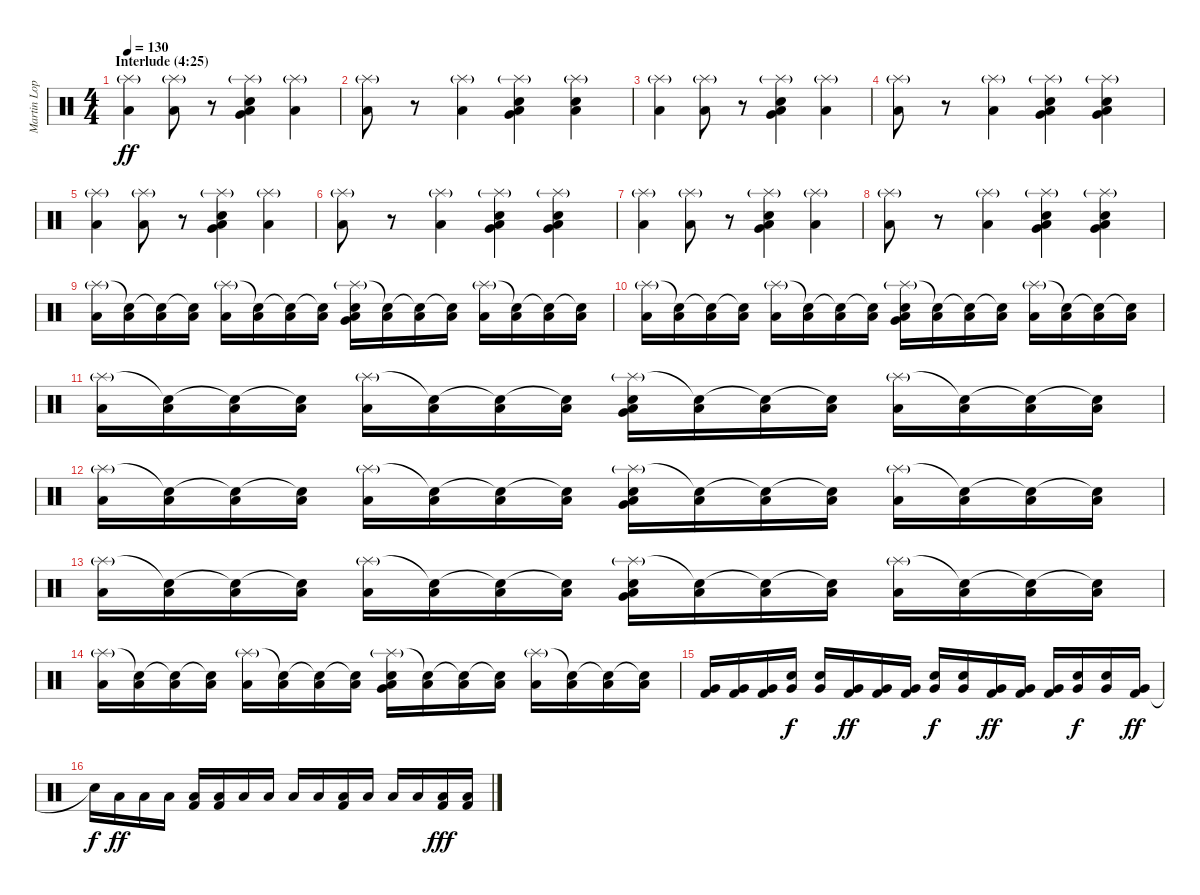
\track ("Martin Lopez" "Martin Lop") {instrument percussion}
\staff {score}
\articulation defaults
\ts (4 4)
\section ("" "Interlude (4:25)")
\tempo 130
\clef neutral
\ks c
("Splash (hit)"{g} "Low Floor Tom (hit)").4{dy ff} ("Splash (hit)"{g} "Low Floor Tom (hit)").8 r.8 ("Splash (hit)"{g} "Very Low Tom (hit)" "Snare (hit) 2" "Low Floor Tom (hit)").4 ("Splash (hit)"{g} "Low Floor Tom (hit)").4 |
("Splash (hit)"{g} "Low Floor Tom (hit)").8 r.8 ("Splash (hit)"{g} "Low Floor Tom (hit)").4 ("Splash (hit)"{g} "Very Low Tom (hit)" "Snare (hit) 2" "Low Floor Tom (hit)").4 ("Splash (hit)"{g} "Snare (hit) 2" "Low Floor Tom (hit)").4 |
("Splash (hit)"{g} "Low Floor Tom (hit)").4 ("Splash (hit)"{g} "Low Floor Tom (hit)").8 r.8 ("Splash (hit)"{g} "Very Low Tom (hit)" "Snare (hit) 2" "Low Floor Tom (hit)").4 ("Splash (hit)"{g} "Low Floor Tom (hit)").4 |
("Splash (hit)"{g} "Low Floor Tom (hit)").8 r.8 ("Splash (hit)"{g} "Low Floor Tom (hit)").4 ("Splash (hit)"{g} "Very Low Tom (hit)" "Snare (hit) 2" "Low Floor Tom (hit)").4 ("Splash (hit)"{g} "Very Low Tom (hit)" "Snare (hit) 2" "Low Floor Tom (hit)").4 |
("Splash (hit)"{g} "Low Floor Tom (hit)").4 ("Splash (hit)"{g} "Low Floor Tom (hit)").8 r.8 ("Splash (hit)"{g} "Very Low Tom (hit)" "Snare (hit) 2" "Low Floor Tom (hit)").4 ("Splash (hit)"{g} "Low Floor Tom (hit)").4 |
("Splash (hit)"{g} "Low Floor Tom (hit)").8 r.8 ("Splash (hit)"{g} "Low Floor Tom (hit)").4 ("Splash (hit)"{g} "Very Low Tom (hit)" "Snare (hit) 2" "Low Floor Tom (hit)").4 ("Splash (hit)"{g} "Very Low Tom (hit)" "Snare (hit) 2" "Low Floor Tom (hit)").4 |
("Splash (hit)"{g} "Low Floor Tom (hit)").4 ("Splash (hit)"{g} "Low Floor Tom (hit)").8 r.8 ("Splash (hit)"{g} "Very Low Tom (hit)" "Snare (hit) 2" "Low Floor Tom (hit)").4 ("Splash (hit)"{g} "Low Floor Tom (hit)").4 |
("Splash (hit)"{g} "Low Floor Tom (hit)").8 r.8 ("Splash (hit)"{g} "Low Floor Tom (hit)").4 ("Splash (hit)"{g} "Very Low Tom (hit)" "Snare (hit) 2" "Low Floor Tom (hit)").4 ("Splash (hit)"{g} "Very Low Tom (hit)" "Snare (hit) 2" "Low Floor Tom (hit)").4 |
("Splash (hit)"{g} "Low Floor Tom (hit)").16 ("Snare (hit)"{t} "Low Floor Tom (hit)").16 ("Snare (hit)"{t} "Low Floor Tom (hit)").16 ("Snare (hit)"{t} "Low Floor Tom (hit)").16 ("Splash (hit)"{g} "Low Floor Tom (hit)").16 ("Snare (hit)"{t} "Low Floor Tom (hit)").16 ("Snare (hit)"{t} "Low Floor Tom (hit)").16 ("Snare (hit)"{t} "Low Floor Tom (hit)").16 ("Splash (hit)"{g} "Very Low Tom (hit)" "Snare (hit) 2" "Low Floor Tom (hit)").16 ("Snare (hit)"{t} "Low Floor Tom (hit)").16 ("Snare (hit)"{t} "Low Floor Tom (hit)").16 ("Snare (hit)"{t} "Low Floor Tom (hit)").16 ("Splash (hit)"{g} "Low Floor Tom (hit)").16 ("Snare (hit)"{t} "Low Floor Tom (hit)").16 ("Snare (hit)"{t} "Low Floor Tom (hit)").16 ("Snare (hit)"{t} "Low Floor Tom (hit)").16 |
("Splash (hit)"{g} "Low Floor Tom (hit)").16 ("Snare (hit)"{t} "Low Floor Tom (hit)").16 ("Snare (hit)"{t} "Low Floor Tom (hit)").16 ("Snare (hit)"{t} "Low Floor Tom (hit)").16 ("Splash (hit)"{g} "Low Floor Tom (hit)").16 ("Snare (hit)"{t} "Low Floor Tom (hit)").16 ("Snare (hit)"{t} "Low Floor Tom (hit)").16 ("Snare (hit)"{t} "Low Floor Tom (hit)").16 ("Splash (hit)"{g} "Very Low Tom (hit)" "Snare (hit) 2" "Low Floor Tom (hit)").16 ("Snare (hit)"{t} "Low Floor Tom (hit)").16 ("Snare (hit)"{t} "Low Floor Tom (hit)").16 ("Snare (hit)"{t} "Low Floor Tom (hit)").16 ("Splash (hit)"{g} "Low Floor Tom (hit)").16 ("Snare (hit)"{t} "Low Floor Tom (hit)").16 ("Snare (hit)"{t} "Low Floor Tom (hit)").16 ("Snare (hit)"{t} "Low Floor Tom (hit)").16 |
("Splash (hit)"{g} "Low Floor Tom (hit)").16 ("Snare (hit)"{t} "Low Floor Tom (hit)").16 ("Snare (hit)"{t} "Low Floor Tom (hit)").16 ("Snare (hit)"{t} "Low Floor Tom (hit)").16 ("Splash (hit)"{g} "Low Floor Tom (hit)").16 ("Snare (hit)"{t} "Low Floor Tom (hit)").16 ("Snare (hit)"{t} "Low Floor Tom (hit)").16 ("Snare (hit)"{t} "Low Floor Tom (hit)").16 ("Splash (hit)"{g} "Very Low Tom (hit)" "Snare (hit) 2" "Low Floor Tom (hit)").16 ("Snare (hit)"{t} "Low Floor Tom (hit)").16 ("Snare (hit)"{t} "Low Floor Tom (hit)").16 ("Snare (hit)"{t} "Low Floor Tom (hit)").16 ("Splash (hit)"{g} "Low Floor Tom (hit)").16 ("Snare (hit)"{t} "Low Floor Tom (hit)").16 ("Snare (hit)"{t} "Low Floor Tom (hit)").16 ("Snare (hit)"{t} "Low Floor Tom (hit)").16 |
("Splash (hit)"{g} "Low Floor Tom (hit)").16 ("Snare (hit)"{t} "Low Floor Tom (hit)").16 ("Snare (hit)"{t} "Low Floor Tom (hit)").16 ("Snare (hit)"{t} "Low Floor Tom (hit)").16 ("Splash (hit)"{g} "Low Floor Tom (hit)").16 ("Snare (hit)"{t} "Low Floor Tom (hit)").16 ("Snare (hit)"{t} "Low Floor Tom (hit)").16 ("Snare (hit)"{t} "Low Floor Tom (hit)").16 ("Splash (hit)"{g} "Very Low Tom (hit)" "Snare (hit) 2" "Low Floor Tom (hit)").16 ("Snare (hit)"{t} "Low Floor Tom (hit)").16 ("Snare (hit)"{t} "Low Floor Tom (hit)").16 ("Snare (hit)"{t} "Low Floor Tom (hit)").16 ("Splash (hit)"{g} "Low Floor Tom (hit)").16 ("Snare (hit)"{t} "Low Floor Tom (hit)").16 ("Snare (hit)"{t} "Low Floor Tom (hit)").16 ("Snare (hit)"{t} "Low Floor Tom (hit)").16 |
("Splash (hit)"{g} "Low Floor Tom (hit)").16 ("Snare (hit)"{t} "Low Floor Tom (hit)").16 ("Snare (hit)"{t} "Low Floor Tom (hit)").16 ("Snare (hit)"{t} "Low Floor Tom (hit)").16 ("Splash (hit)"{g} "Low Floor Tom (hit)").16 ("Snare (hit)"{t} "Low Floor Tom (hit)").16 ("Snare (hit)"{t} "Low Floor Tom (hit)").16 ("Snare (hit)"{t} "Low Floor Tom (hit)").16 ("Splash (hit)"{g} "Very Low Tom (hit)" "Snare (hit) 2" "Low Floor Tom (hit)").16 ("Snare (hit)"{t} "Low Floor Tom (hit)").16 ("Snare (hit)"{t} "Low Floor Tom (hit)").16 ("Snare (hit)"{t} "Low Floor Tom (hit)").16 ("Splash (hit)"{g} "Low Floor Tom (hit)").16 ("Snare (hit)"{t} "Low Floor Tom (hit)").16 ("Snare (hit)"{t} "Low Floor Tom (hit)").16 ("Snare (hit)"{t} "Low Floor Tom (hit)").16 |
("Splash (hit)"{g} "Low Floor Tom (hit)").16 ("Snare (hit)"{t} "Low Floor Tom (hit)").16 ("Snare (hit)"{t} "Low Floor Tom (hit)").16 ("Snare (hit)"{t} "Low Floor Tom (hit)").16 ("Splash (hit)"{g} "Low Floor Tom (hit)").16 ("Snare (hit)"{t} "Low Floor Tom (hit)").16 ("Snare (hit)"{t} "Low Floor Tom (hit)").16 ("Snare (hit)"{t} "Low Floor Tom (hit)").16 ("Splash (hit)"{g} "Very Low Tom (hit)" "Snare (hit) 2" "Low Floor Tom (hit)").16 ("Snare (hit)"{t} "Low Floor Tom (hit)").16 ("Snare (hit)"{t} "Low Floor Tom (hit)").16 ("Snare (hit)"{t} "Low Floor Tom (hit)").16 ("Splash (hit)"{g} "Low Floor Tom (hit)").16 ("Snare (hit)"{t} "Low Floor Tom (hit)").16 ("Snare (hit)"{t} "Low Floor Tom (hit)").16 ("Snare (hit)"{t} "Low Floor Tom (hit)").16 |
("Kick (hit) 2" "Very Low Tom (hit)").16 ("Kick (hit) 2" "Very Low Tom (hit)").16 ("Kick (hit) 2" "Very Low Tom (hit)").16 ("Very Low Tom (hit)" "Snare (hit) 2").16{dy f} ("Very Low Tom (hit)" "Snare (hit) 2").16 ("Kick (hit) 2" "Very Low Tom (hit)").16{dy ff} ("Kick (hit) 2" "Very Low Tom (hit)").16 ("Kick (hit) 2" "Very Low Tom (hit)").16 ("Very Low Tom (hit)" "Snare (hit) 2").16{dy f} ("Very Low Tom (hit)" "Snare (hit) 2").16 ("Kick (hit) 2" "Very Low Tom (hit)").16{dy ff} ("Kick (hit) 2" "Very Low Tom (hit)").16 ("Kick (hit) 2" "Very Low Tom (hit)").16 ("Very Low Tom (hit)" "Snare (hit) 2").16{dy f} ("Very Low Tom (hit)" "Snare (hit) 2").16 ("Kick (hit) 2" "Very Low Tom (hit)").16{dy ff} |
"Snare (hit)"{t}.16{dy f} "Low Tom (hit)".16{dy ff} "Low Tom (hit)".16 "Low Tom (hit)".16 ("Kick (hit) 2" "Low Floor Tom (hit)").16 ("Kick (hit) 2" "Low Floor Tom (hit)").16 "Low Tom (hit)".16 "Low Tom (hit)".16 "Low Tom (hit)".16 "Low Floor Tom (hit)".16 ("Kick (hit) 2" "Low Floor Tom (hit)").16 "Low Tom (hit)".16 "Low Tom (hit)".16 "Low Tom (hit)".16 ("Kick (hit) 2" "Low Floor Tom (hit)").16{dy fff} ("Kick (hit) 2" "Low Floor Tom (hit)").16
